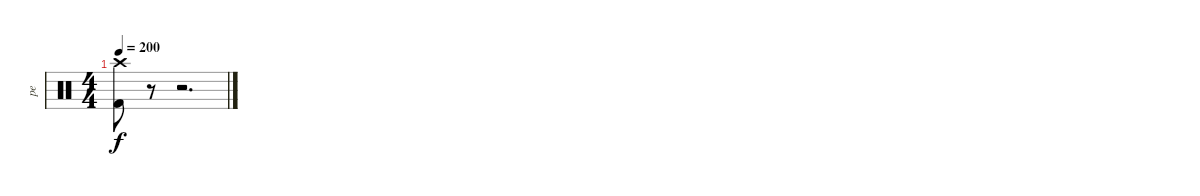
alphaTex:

\track ("pe" "pe") {instrument percussion}
\staff {score}
\articulation defaults
\ts (4 4)
\tempo 200
\clef neutral
\ks c
("Crash high (hit)" "Kick (hit) 2").8{dy f} r.8 r.2{d}
